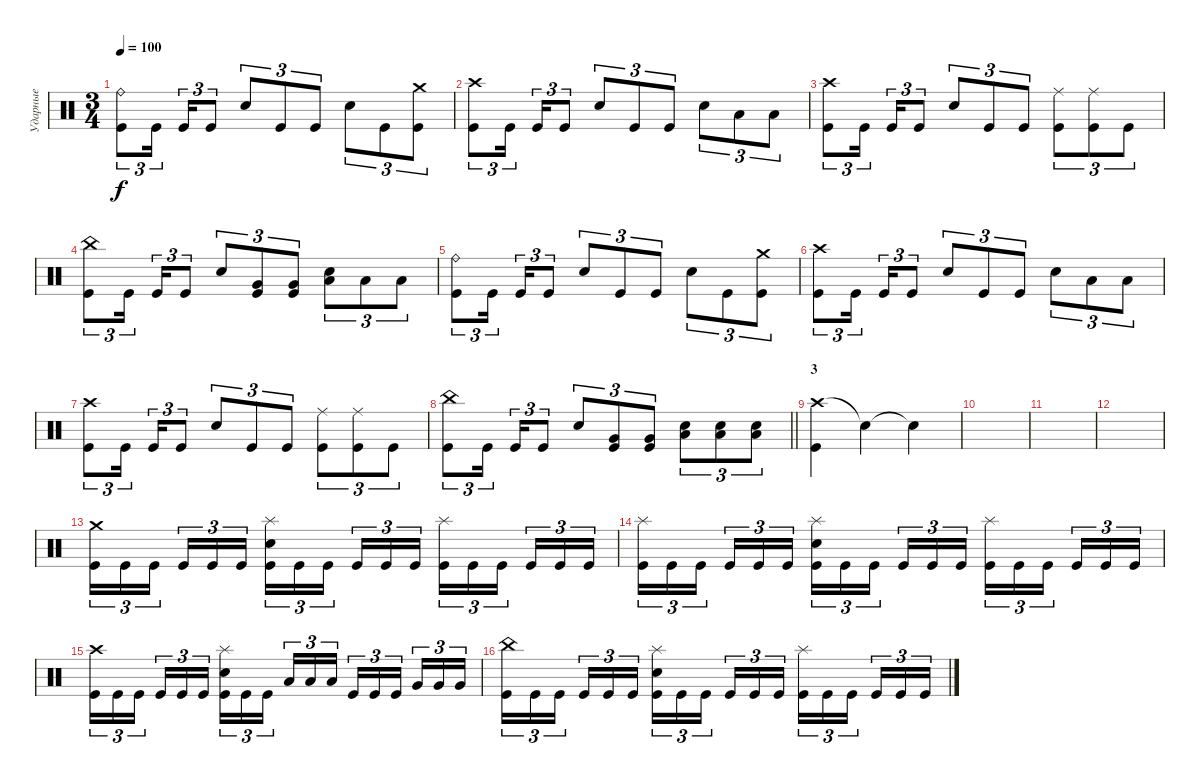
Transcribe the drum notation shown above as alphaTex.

\track ("Ударные" "Ударные") {instrument percussion}
\staff {score}
\articulation defaults
\ts (3 4)
\tempo 100
\clef neutral
\ks c
("Ride (bell)" "Kick (hit)").8{tu (3 2) dy f} "Kick (hit)".16{tu (3 2) beam splitsecondary} "Kick (hit)".16{tu (3 2)} "Kick (hit)".8{tu (3 2)} "Electric Snare (hit)".8{tu (3 2)} "Kick (hit)".8{tu (3 2)} "Kick (hit)".8{tu (3 2)} "Electric Snare (hit)".8{tu (3 2)} "Kick (hit)".8{tu (3 2)} ("Crash medium (hit)" "Kick (hit)").8{tu (3 2)} |
("Crash high (hit)" "Kick (hit)").8{tu (3 2)} "Kick (hit)".16{tu (3 2) beam splitsecondary} "Kick (hit)".16{tu (3 2)} "Kick (hit)".8{tu (3 2)} "Electric Snare (hit)".8{tu (3 2)} "Kick (hit)".8{tu (3 2)} "Kick (hit)".8{tu (3 2)} "Electric Snare (hit)".8{tu (3 2)} "Low Tom (hit)".8{tu (3 2)} "Low Tom (hit)".8{tu (3 2)} |
("Crash high (hit)" "Kick (hit)").8{tu (3 2)} "Kick (hit)".16{tu (3 2) beam splitsecondary} "Kick (hit)".16{tu (3 2)} "Kick (hit)".8{tu (3 2)} "Electric Snare (hit)".8{tu (3 2)} "Kick (hit)".8{tu (3 2)} "Kick (hit)".8{tu (3 2)} ("Ride (middle)" "Kick (hit)").8{tu (3 2)} ("Ride (middle)" "Kick (hit)").8{tu (3 2)} "Kick (hit)".8{tu (3 2)} |
("China (hit)" "Kick (hit)").8{tu (3 2)} "Kick (hit)".16{tu (3 2) beam splitsecondary} "Kick (hit)".16{tu (3 2)} "Kick (hit)".8{tu (3 2)} "Electric Snare (hit)".8{tu (3 2)} ("Very Low Tom (hit)" "Kick (hit)").8{tu (3 2)} ("Very Low Tom (hit)" "Kick (hit)").8{tu (3 2)} ("Low Floor Tom (hit)" "Electric Snare (hit)").8{tu (3 2)} "Low Floor Tom (hit)".8{tu (3 2)} "Low Floor Tom (hit)".8{tu (3 2)} |
("Ride (bell)" "Kick (hit)").8{tu (3 2)} "Kick (hit)".16{tu (3 2) beam splitsecondary} "Kick (hit)".16{tu (3 2)} "Kick (hit)".8{tu (3 2)} "Electric Snare (hit)".8{tu (3 2)} "Kick (hit)".8{tu (3 2)} "Kick (hit)".8{tu (3 2)} "Electric Snare (hit)".8{tu (3 2)} "Kick (hit)".8{tu (3 2)} ("Crash medium (hit)" "Kick (hit)").8{tu (3 2)} |
("Crash high (hit)" "Kick (hit)").8{tu (3 2)} "Kick (hit)".16{tu (3 2) beam splitsecondary} "Kick (hit)".16{tu (3 2)} "Kick (hit)".8{tu (3 2)} "Electric Snare (hit)".8{tu (3 2)} "Kick (hit)".8{tu (3 2)} "Kick (hit)".8{tu (3 2)} "Electric Snare (hit)".8{tu (3 2)} "Low Tom (hit)".8{tu (3 2)} "Low Tom (hit)".8{tu (3 2)} |
("Crash high (hit)" "Kick (hit)").8{tu (3 2)} "Kick (hit)".16{tu (3 2) beam splitsecondary} "Kick (hit)".16{tu (3 2)} "Kick (hit)".8{tu (3 2)} "Electric Snare (hit)".8{tu (3 2)} "Kick (hit)".8{tu (3 2)} "Kick (hit)".8{tu (3 2)} ("Ride (middle)" "Kick (hit)").8{tu (3 2)} ("Ride (middle)" "Kick (hit)").8{tu (3 2)} "Kick (hit)".8{tu (3 2)} |
\barLineRight lightlight
("China (hit)" "Kick (hit)").8{tu (3 2)} "Kick (hit)".16{tu (3 2) beam splitsecondary} "Kick (hit)".16{tu (3 2)} "Kick (hit)".8{tu (3 2)} "Electric Snare (hit)".8{tu (3 2)} ("Very Low Tom (hit)" "Kick (hit)").8{tu (3 2)} ("Very Low Tom (hit)" "Kick (hit)").8{tu (3 2)} ("Low Floor Tom (hit)" "Electric Snare (hit)").8{tu (3 2)} ("Low Floor Tom (hit)" "Electric Snare (hit)").8{tu (3 2)} ("Low Floor Tom (hit)" "Electric Snare (hit)").8{tu (3 2)} |
\section ("" "3")
("Crash high (hit)" "Kick (hit)").4 "Snare (hit)"{t}.4 "Snare (hit)"{t}.4 |
|
|
|
("Crash medium (hit)" "Kick (hit)").16{tu (3 2)} "Kick (hit)".16{tu (3 2)} "Kick (hit)".16{tu (3 2) beam splitsecondary} "Kick (hit)".16{tu (3 2)} "Kick (hit)".16{tu (3 2)} "Kick (hit)".16{tu (3 2)} ("Splash (hit)" "Electric Snare (hit)" "Kick (hit)").16{tu (3 2)} "Kick (hit)".16{tu (3 2)} "Kick (hit)".16{tu (3 2) beam splitsecondary} "Kick (hit)".16{tu (3 2)} "Kick (hit)".16{tu (3 2)} "Kick (hit)".16{tu (3 2)} ("Splash (hit)" "Kick (hit)").16{tu (3 2)} "Kick (hit)".16{tu (3 2)} "Kick (hit)".16{tu (3 2) beam splitsecondary} "Kick (hit)".16{tu (3 2)} "Kick (hit)".16{tu (3 2)} "Kick (hit)".16{tu (3 2)} |
("Splash (hit)" "Kick (hit)").16{tu (3 2)} "Kick (hit)".16{tu (3 2)} "Kick (hit)".16{tu (3 2) beam splitsecondary} "Kick (hit)".16{tu (3 2)} "Kick (hit)".16{tu (3 2)} "Kick (hit)".16{tu (3 2)} ("Splash (hit)" "Electric Snare (hit)" "Kick (hit)").16{tu (3 2)} "Kick (hit)".16{tu (3 2)} "Kick (hit)".16{tu (3 2) beam splitsecondary} "Kick (hit)".16{tu (3 2)} "Kick (hit)".16{tu (3 2)} "Kick (hit)".16{tu (3 2)} ("Splash (hit)" "Kick (hit)").16{tu (3 2)} "Kick (hit)".16{tu (3 2)} "Kick (hit)".16{tu (3 2) beam splitsecondary} "Kick (hit)".16{tu (3 2)} "Kick (hit)".16{tu (3 2)} "Kick (hit)".16{tu (3 2)} |
("Crash high (hit)" "Kick (hit)").16{tu (3 2)} "Kick (hit)".16{tu (3 2)} "Kick (hit)".16{tu (3 2) beam splitsecondary} "Kick (hit)".16{tu (3 2)} "Kick (hit)".16{tu (3 2)} "Kick (hit)".16{tu (3 2)} ("Splash (hit)" "Electric Snare (hit)" "Kick (hit)").16{tu (3 2)} "Kick (hit)".16{tu (3 2)} "Kick (hit)".16{tu (3 2) beam splitsecondary} "Low Tom (hit)".16{tu (3 2)} "Low Tom (hit)".16{tu (3 2)} "Low Tom (hit)".16{tu (3 2)} "Kick (hit)".16{tu (3 2)} "Kick (hit)".16{tu (3 2)} "Kick (hit)".16{tu (3 2) beam splitsecondary} "Very Low Tom (hit)".16{tu (3 2)} "Very Low Tom (hit)".16{tu (3 2)} "Very Low Tom (hit)".16{tu (3 2)} |
("China (hit)" "Kick (hit)").16{tu (3 2)} "Kick (hit)".16{tu (3 2)} "Kick (hit)".16{tu (3 2) beam splitsecondary} "Kick (hit)".16{tu (3 2)} "Kick (hit)".16{tu (3 2)} "Kick (hit)".16{tu (3 2)} ("Splash (hit)" "Electric Snare (hit)" "Kick (hit)").16{tu (3 2)} "Kick (hit)".16{tu (3 2)} "Kick (hit)".16{tu (3 2) beam splitsecondary} "Kick (hit)".16{tu (3 2)} "Kick (hit)".16{tu (3 2)} "Kick (hit)".16{tu (3 2)} ("Splash (hit)" "Kick (hit)").16{tu (3 2)} "Kick (hit)".16{tu (3 2)} "Kick (hit)".16{tu (3 2) beam splitsecondary} "Kick (hit)".16{tu (3 2)} "Kick (hit)".16{tu (3 2)} "Kick (hit)".16{tu (3 2)}
